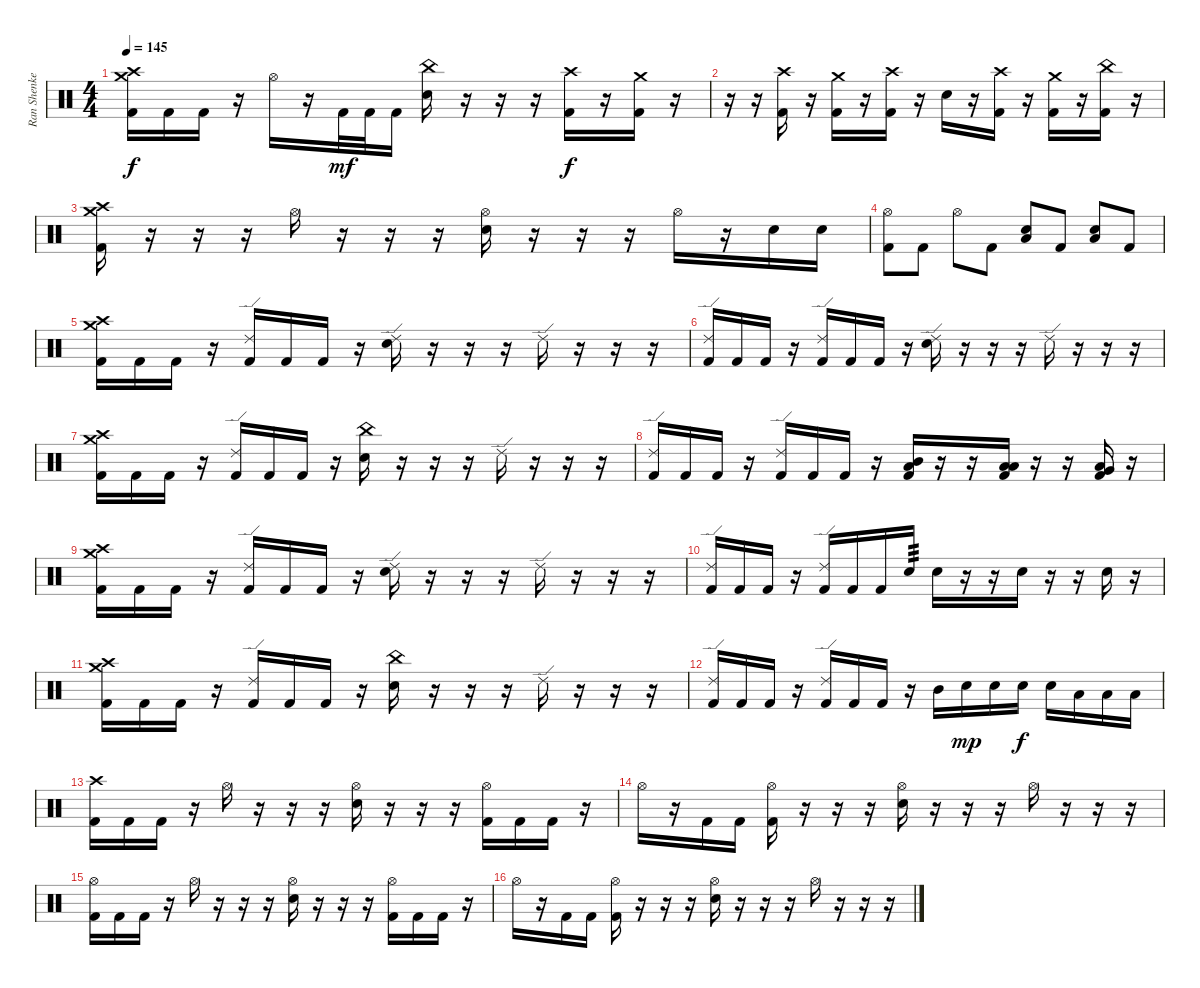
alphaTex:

\track ("Ran Shenkerman" "Ran Shenke") {instrument percussion}
\staff {score}
\articulation defaults
\ts (4 4)
\tempo 145
\clef neutral
\ks c
("Crash high (hit)" "Crash medium (hit)" "Kick (hit) 2").16{dy f} "Kick (hit) 2".16 "Kick (hit) 2".16 r.16 "Hi-Hat (open)".16 r.16 "Kick (hit) 2".32{dy mf} "Kick (hit) 2".32 "Kick (hit) 2".16 ("China (hit)" "Snare (hit) 2").16 r.16 r.16 r.16 ("Crash high (hit)" "Kick (hit) 2").16{dy f} r.16 ("Crash medium (hit)" "Kick (hit) 2").16 r.16 |
r.16 r.16 ("Crash high (hit)" "Kick (hit) 2").16 r.16 ("Crash medium (hit)" "Kick (hit) 2").16 r.16 ("Crash high (hit)" "Kick (hit) 2").16 r.16 "Snare (hit) 2".16 r.16 ("Crash high (hit)" "Kick (hit) 2").16 r.16 ("Crash medium (hit)" "Kick (hit) 2").16 r.16 ("China (hit)" "Kick (hit) 2").16 r.16 |
("Crash medium (hit)" "Crash high (hit)" "Kick (hit) 2").16 r.16 r.16 r.16 "Hi-Hat (open)".16 r.16 r.16 r.16 ("Hi-Hat (open)" "Snare (hit) 2").16 r.16 r.16 r.16 "Hi-Hat (open)".16 r.16 "Snare (hit) 2".16 "Snare (hit) 2".16 |
("Hi-Hat (open)" "Kick (hit) 2").8 "Kick (hit) 2".8 "Hi-Hat (open)".8 "Kick (hit) 2".8 ("Snare (hit) 2" "Low Floor Tom (hit)").8 "Kick (hit) 2".8 ("Snare (hit) 2" "Low Floor Tom (hit)").8 "Kick (hit) 2".8 |
("Crash high (hit)" "Crash medium (hit)" "Kick (hit) 2").16 "Kick (hit) 2".16 "Kick (hit) 2".16 r.16 ("Ride (edge) 2" "Kick (hit) 2").16 "Kick (hit) 2".16 "Kick (hit) 2".16 r.16 ("Ride (edge) 2" "Snare (hit) 2").16 r.16 r.16 r.16 "Ride (edge) 2".16 r.16 r.16 r.16 |
("Ride (edge) 2" "Kick (hit) 2").16 "Kick (hit) 2".16 "Kick (hit) 2".16 r.16 ("Ride (edge) 2" "Kick (hit) 2").16 "Kick (hit) 2".16 "Kick (hit) 2".16 r.16 ("Ride (edge) 2" "Snare (hit) 2").16 r.16 r.16 r.16 "Ride (edge) 2".16 r.16 r.16 r.16 |
("Crash high (hit)" "Crash medium (hit)" "Kick (hit) 2").16 "Kick (hit) 2".16 "Kick (hit) 2".16 r.16 ("Ride (edge) 2" "Kick (hit) 2").16 "Kick (hit) 2".16 "Kick (hit) 2".16 r.16 ("China (hit)" "Snare (hit) 2").16 r.16 r.16 r.16 "Ride (edge) 2".16 r.16 r.16 r.16 |
("Ride (edge) 2" "Kick (hit) 2").16 "Kick (hit) 2".16 "Kick (hit) 2".16 r.16 ("Ride (edge) 2" "Kick (hit) 2").16 "Kick (hit) 2".16 "Kick (hit) 2".16 r.16 ("Mid Tom (hit)" "Low Floor Tom (hit)" "Kick (hit) 2").16 r.16 r.16 ("Low Tom (hit)" "Low Floor Tom (hit)" "Kick (hit) 2").16 r.16 r.16 ("Very Low Tom (hit)" "Low Floor Tom (hit)" "Kick (hit) 2").16 r.16 |
("Crash high (hit)" "Crash medium (hit)" "Kick (hit) 2").16 "Kick (hit) 2".16 "Kick (hit) 2".16 r.16 ("Ride (edge) 2" "Kick (hit) 2").16 "Kick (hit) 2".16 "Kick (hit) 2".16 r.16 ("Ride (edge) 2" "Snare (hit) 2").16 r.16 r.16 r.16 "Ride (edge) 2".16 r.16 r.16 r.16 |
("Ride (edge) 2" "Kick (hit) 2").16 "Kick (hit) 2".16 "Kick (hit) 2".16 r.16 ("Ride (edge) 2" "Kick (hit) 2").16 "Kick (hit) 2".16 "Kick (hit) 2".16 "Snare (hit) 2".16{tp 3} "Snare (hit) 2".16 r.16 r.16 "Snare (hit) 2".16 r.16 r.16 "Snare (hit) 2".16 r.16 |
("Crash high (hit)" "Crash medium (hit)" "Kick (hit) 2").16 "Kick (hit) 2".16 "Kick (hit) 2".16 r.16 ("Ride (edge) 2" "Kick (hit) 2").16 "Kick (hit) 2".16 "Kick (hit) 2".16 r.16 ("China (hit)" "Snare (hit) 2").16 r.16 r.16 r.16 "Ride (edge) 2".16 r.16 r.16 r.16 |
("Ride (edge) 2" "Kick (hit) 2").16 "Kick (hit) 2".16 "Kick (hit) 2".16 r.16 ("Ride (edge) 2" "Kick (hit) 2").16 "Kick (hit) 2".16 "Kick (hit) 2".16 r.16 "Mid Tom (hit)".16 "Snare (hit) 2".16{dy mp} "Snare (hit) 2".16 "Snare (hit) 2".16{dy f} "Snare (hit) 2".16 "Low Floor Tom (hit)".16 "Low Floor Tom (hit)".16 "Low Floor Tom (hit)".16 |
("Crash high (hit)" "Kick (hit) 2").16 "Kick (hit) 2".16 "Kick (hit) 2".16 r.16 "Hi-Hat (open)".16 r.16 r.16 r.16 ("Hi-Hat (open)" "Snare (hit) 2").16 r.16 r.16 r.16 ("Hi-Hat (open)" "Kick (hit) 2").16 "Kick (hit) 2".16 "Kick (hit) 2".16 r.16 |
"Hi-Hat (open)".16 r.16 "Kick (hit) 2".16 "Kick (hit) 2".16 ("Hi-Hat (open)" "Kick (hit) 2").16 r.16 r.16 r.16 ("Hi-Hat (open)" "Snare (hit) 2").16 r.16 r.16 r.16 "Hi-Hat (open)".16 r.16 r.16 r.16 |
("Hi-Hat (open)" "Kick (hit) 2").16 "Kick (hit) 2".16 "Kick (hit) 2".16 r.16 "Hi-Hat (open)".16 r.16 r.16 r.16 ("Hi-Hat (open)" "Snare (hit) 2").16 r.16 r.16 r.16 ("Hi-Hat (open)" "Kick (hit) 2").16 "Kick (hit) 2".16 "Kick (hit) 2".16 r.16 |
"Hi-Hat (open)".16 r.16 "Kick (hit) 2".16 "Kick (hit) 2".16 ("Hi-Hat (open)" "Kick (hit) 2").16 r.16 r.16 r.16 ("Hi-Hat (open)" "Snare (hit) 2").16 r.16 r.16 r.16 "Hi-Hat (open)".16 r.16 r.16 r.16
